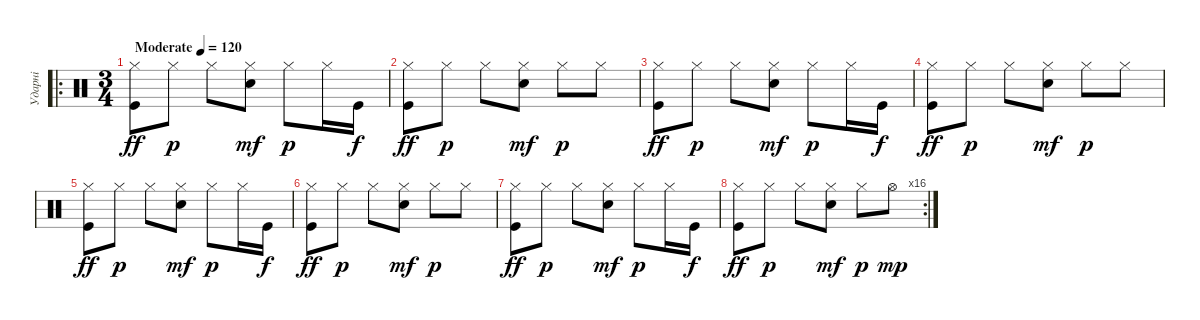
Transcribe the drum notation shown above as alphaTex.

\track ("Ударні" "Ударні") {instrument percussion}
\staff {score}
\articulation defaults
\ro
\ts (3 4)
\tempo (120 "Moderate")
\clef neutral
\ks c
("Hi-Hat (closed)" "Kick (hit)").8{dy ff} "Hi-Hat (closed)".8{dy p} "Hi-Hat (closed)".8 ("Hi-Hat (closed)" "Snare (hit) 2").8{dy mf} "Hi-Hat (closed)".8{dy p} "Hi-Hat (closed)".16 "Kick (hit)".16{dy f} |
("Hi-Hat (closed)" "Kick (hit)").8{dy ff} "Hi-Hat (closed)".8{dy p} "Hi-Hat (closed)".8 ("Hi-Hat (closed)" "Snare (hit) 2").8{dy mf} "Hi-Hat (closed)".8{dy p} "Hi-Hat (closed)".8 |
("Hi-Hat (closed)" "Kick (hit)").8{dy ff} "Hi-Hat (closed)".8{dy p} "Hi-Hat (closed)".8 ("Hi-Hat (closed)" "Snare (hit) 2").8{dy mf} "Hi-Hat (closed)".8{dy p} "Hi-Hat (closed)".16 "Kick (hit)".16{dy f} |
("Hi-Hat (closed)" "Kick (hit)").8{dy ff} "Hi-Hat (closed)".8{dy p} "Hi-Hat (closed)".8 ("Hi-Hat (closed)" "Snare (hit) 2").8{dy mf} "Hi-Hat (closed)".8{dy p} "Hi-Hat (closed)".8 |
("Hi-Hat (closed)" "Kick (hit)").8{dy ff} "Hi-Hat (closed)".8{dy p} "Hi-Hat (closed)".8 ("Hi-Hat (closed)" "Snare (hit) 2").8{dy mf} "Hi-Hat (closed)".8{dy p} "Hi-Hat (closed)".16 "Kick (hit)".16{dy f} |
("Hi-Hat (closed)" "Kick (hit)").8{dy ff} "Hi-Hat (closed)".8{dy p} "Hi-Hat (closed)".8 ("Hi-Hat (closed)" "Snare (hit) 2").8{dy mf} "Hi-Hat (closed)".8{dy p} "Hi-Hat (closed)".8 |
("Hi-Hat (closed)" "Kick (hit)").8{dy ff} "Hi-Hat (closed)".8{dy p} "Hi-Hat (closed)".8 ("Hi-Hat (closed)" "Snare (hit) 2").8{dy mf} "Hi-Hat (closed)".8{dy p} "Hi-Hat (closed)".16 "Kick (hit)".16{dy f} |
\rc 16
("Hi-Hat (closed)" "Kick (hit)").8{dy ff} "Hi-Hat (closed)".8{dy p} "Hi-Hat (closed)".8 ("Hi-Hat (closed)" "Snare (hit) 2").8{dy mf} "Hi-Hat (closed)".8{dy p} "Hi-Hat (open)".8{dy mp}
